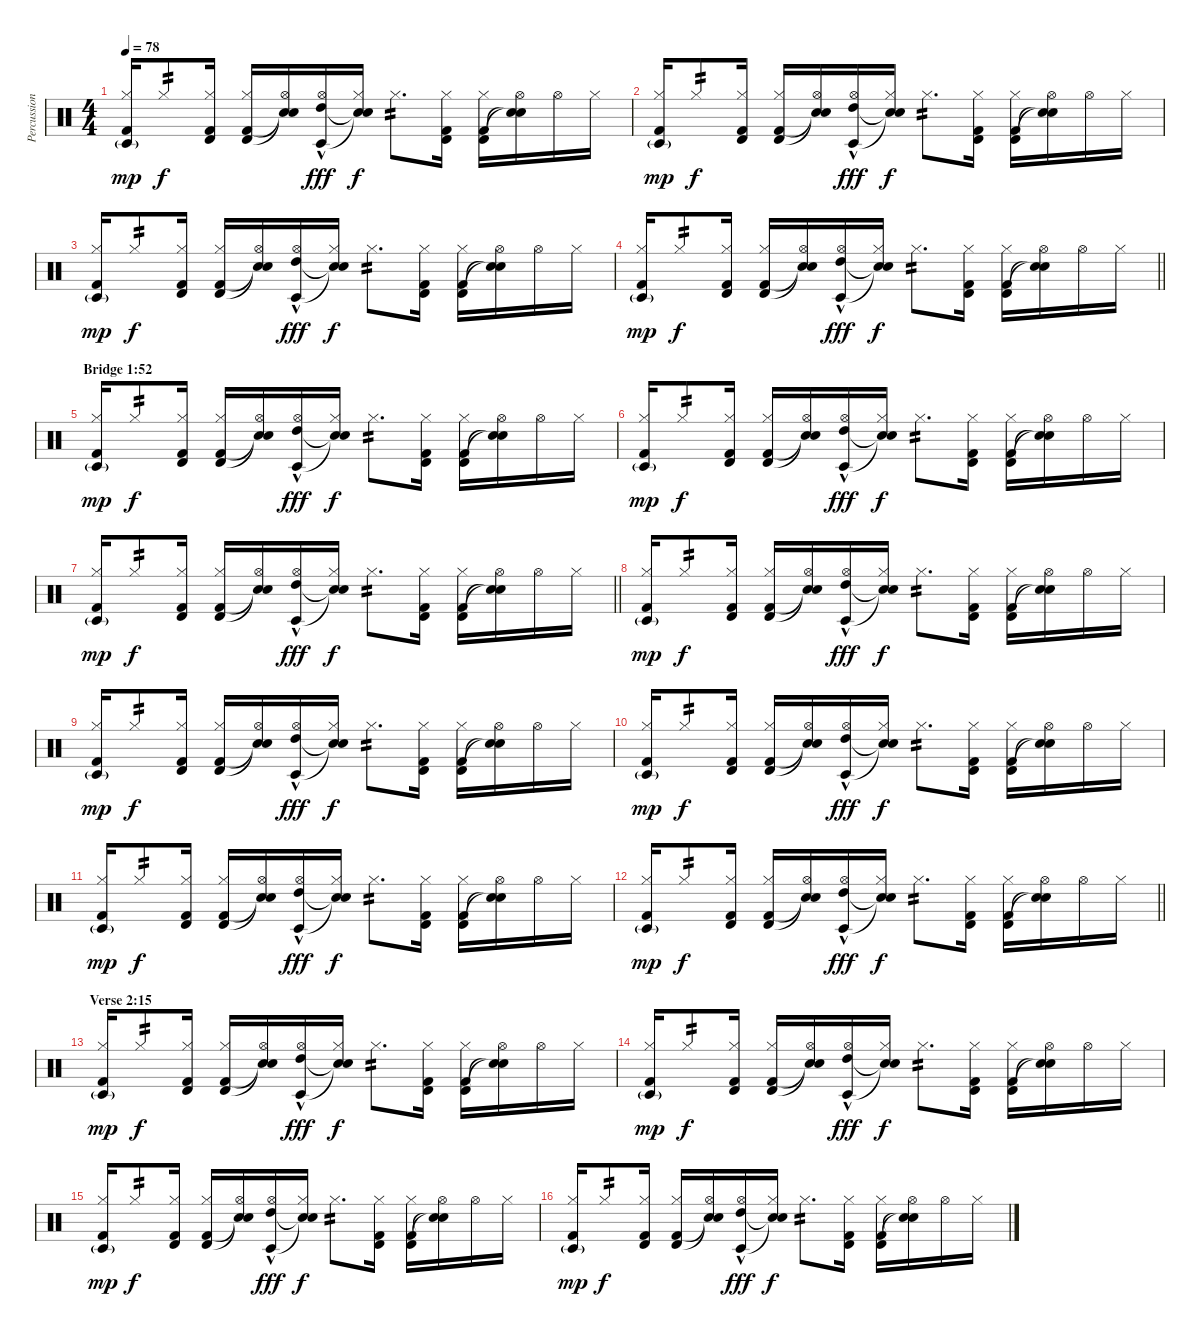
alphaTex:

\track ("Percussion" "Percussion") {instrument percussion}
\staff {score}
\articulation defaults
\ts (4 4)
\tempo 78
\clef neutral
\ks c
("Timbale low (hit)"{g} "Hi-Hat (closed)" "Kick (hit) 2").16{dy mp} "Hi-Hat (closed)".8{tp 2 dy f} ("Timbale high (hit)" "Hi-Hat (closed)" "Kick (hit) 2").16 ("Timbale high (hit)" "Hi-Hat (closed)" "Kick (hit) 2").16 ("Snare (hit)"{t} "Hi-Hat (open)" "Snare (hit)"{t}).16 ("Timbale low (hit)" "Hi-Hat (open)" "High Tom (hit)"{hac}).16{dy fff} ("Snare (hit)"{t} "Hi-Hat (closed)" "Snare (hit)"{t}).16{dy f} "Hi-Hat (closed)".8{d tp 2} ("Timbale high (hit)" "Hi-Hat (closed)" "Kick (hit) 2").16 ("Timbale high (hit)" "Hi-Hat (closed)" "Kick (hit) 2").16 ("Snare (hit)"{t} "Hi-Hat (open)" "Snare (hit)"{t}).16 "Hi-Hat (open)".16 "Hi-Hat (closed)".16 |
("Timbale low (hit)"{g} "Hi-Hat (closed)" "Kick (hit) 2").16{dy mp} "Hi-Hat (closed)".8{tp 2 dy f} ("Timbale high (hit)" "Hi-Hat (closed)" "Kick (hit) 2").16 ("Timbale high (hit)" "Hi-Hat (closed)" "Kick (hit) 2").16 ("Snare (hit)"{t} "Hi-Hat (open)" "Snare (hit)"{t}).16 ("Timbale low (hit)" "Hi-Hat (open)" "High Tom (hit)"{hac}).16{dy fff} ("Snare (hit)"{t} "Hi-Hat (closed)" "Snare (hit)"{t}).16{dy f} "Hi-Hat (closed)".8{d tp 2} ("Timbale high (hit)" "Hi-Hat (closed)" "Kick (hit) 2").16 ("Timbale high (hit)" "Hi-Hat (closed)" "Kick (hit) 2").16 ("Snare (hit)"{t} "Hi-Hat (open)" "Snare (hit)"{t}).16 "Hi-Hat (open)".16 "Hi-Hat (closed)".16 |
("Timbale low (hit)"{g} "Hi-Hat (closed)" "Kick (hit) 2").16{dy mp} "Hi-Hat (closed)".8{tp 2 dy f} ("Timbale high (hit)" "Hi-Hat (closed)" "Kick (hit) 2").16 ("Timbale high (hit)" "Hi-Hat (closed)" "Kick (hit) 2").16 ("Snare (hit)"{t} "Hi-Hat (open)" "Snare (hit)"{t}).16 ("Timbale low (hit)" "Hi-Hat (open)" "High Tom (hit)"{hac}).16{dy fff} ("Snare (hit)"{t} "Hi-Hat (closed)" "Snare (hit)"{t}).16{dy f} "Hi-Hat (closed)".8{d tp 2} ("Timbale high (hit)" "Hi-Hat (closed)" "Kick (hit) 2").16 ("Timbale high (hit)" "Hi-Hat (closed)" "Kick (hit) 2").16 ("Snare (hit)"{t} "Hi-Hat (open)" "Snare (hit)"{t}).16 "Hi-Hat (open)".16 "Hi-Hat (closed)".16 |
\barLineRight lightlight
("Timbale low (hit)"{g} "Hi-Hat (closed)" "Kick (hit) 2").16{dy mp} "Hi-Hat (closed)".8{tp 2 dy f} ("Timbale high (hit)" "Hi-Hat (closed)" "Kick (hit) 2").16 ("Timbale high (hit)" "Hi-Hat (closed)" "Kick (hit) 2").16 ("Snare (hit)"{t} "Hi-Hat (open)" "Snare (hit)"{t}).16 ("Timbale low (hit)" "Hi-Hat (open)" "High Tom (hit)"{hac}).16{dy fff} ("Snare (hit)"{t} "Hi-Hat (closed)" "Snare (hit)"{t}).16{dy f} "Hi-Hat (closed)".8{d tp 2} ("Timbale high (hit)" "Hi-Hat (closed)" "Kick (hit) 2").16 ("Timbale high (hit)" "Hi-Hat (closed)" "Kick (hit) 2").16 ("Snare (hit)"{t} "Hi-Hat (open)" "Snare (hit)"{t}).16 "Hi-Hat (open)".16 "Hi-Hat (closed)".16 |
\section ("" "Bridge 1:52")
("Timbale low (hit)"{g} "Hi-Hat (closed)" "Kick (hit) 2").16{dy mp} "Hi-Hat (closed)".8{tp 2 dy f} ("Timbale high (hit)" "Hi-Hat (closed)" "Kick (hit) 2").16 ("Timbale high (hit)" "Hi-Hat (closed)" "Kick (hit) 2").16 ("Snare (hit)"{t} "Hi-Hat (open)" "Snare (hit)"{t}).16 ("Timbale low (hit)" "Hi-Hat (open)" "High Tom (hit)"{hac}).16{dy fff} ("Snare (hit)"{t} "Hi-Hat (closed)" "Snare (hit)"{t}).16{dy f} "Hi-Hat (closed)".8{d tp 2} ("Timbale high (hit)" "Hi-Hat (closed)" "Kick (hit) 2").16 ("Timbale high (hit)" "Hi-Hat (closed)" "Kick (hit) 2").16 ("Snare (hit)"{t} "Hi-Hat (open)" "Snare (hit)"{t}).16 "Hi-Hat (open)".16 "Hi-Hat (closed)".16 |
("Timbale low (hit)"{g} "Hi-Hat (closed)" "Kick (hit) 2").16{dy mp} "Hi-Hat (closed)".8{tp 2 dy f} ("Timbale high (hit)" "Hi-Hat (closed)" "Kick (hit) 2").16 ("Timbale high (hit)" "Hi-Hat (closed)" "Kick (hit) 2").16 ("Snare (hit)"{t} "Hi-Hat (open)" "Snare (hit)"{t}).16 ("Timbale low (hit)" "Hi-Hat (open)" "High Tom (hit)"{hac}).16{dy fff} ("Snare (hit)"{t} "Hi-Hat (closed)" "Snare (hit)"{t}).16{dy f} "Hi-Hat (closed)".8{d tp 2} ("Timbale high (hit)" "Hi-Hat (closed)" "Kick (hit) 2").16 ("Timbale high (hit)" "Hi-Hat (closed)" "Kick (hit) 2").16 ("Snare (hit)"{t} "Hi-Hat (open)" "Snare (hit)"{t}).16 "Hi-Hat (open)".16 "Hi-Hat (closed)".16 |
\barLineRight lightlight
("Timbale low (hit)"{g} "Hi-Hat (closed)" "Kick (hit) 2").16{dy mp} "Hi-Hat (closed)".8{tp 2 dy f} ("Timbale high (hit)" "Hi-Hat (closed)" "Kick (hit) 2").16 ("Timbale high (hit)" "Hi-Hat (closed)" "Kick (hit) 2").16 ("Snare (hit)"{t} "Hi-Hat (open)" "Snare (hit)"{t}).16 ("Timbale low (hit)" "Hi-Hat (open)" "High Tom (hit)"{hac}).16{dy fff} ("Snare (hit)"{t} "Hi-Hat (closed)" "Snare (hit)"{t}).16{dy f} "Hi-Hat (closed)".8{d tp 2} ("Timbale high (hit)" "Hi-Hat (closed)" "Kick (hit) 2").16 ("Timbale high (hit)" "Hi-Hat (closed)" "Kick (hit) 2").16 ("Snare (hit)"{t} "Hi-Hat (open)" "Snare (hit)"{t}).16 "Hi-Hat (open)".16 "Hi-Hat (closed)".16 |
("Timbale low (hit)"{g} "Hi-Hat (closed)" "Kick (hit) 2").16{dy mp} "Hi-Hat (closed)".8{tp 2 dy f} ("Timbale high (hit)" "Hi-Hat (closed)" "Kick (hit) 2").16 ("Timbale high (hit)" "Hi-Hat (closed)" "Kick (hit) 2").16 ("Snare (hit)"{t} "Hi-Hat (open)" "Snare (hit)"{t}).16 ("Timbale low (hit)" "Hi-Hat (open)" "High Tom (hit)"{hac}).16{dy fff} ("Snare (hit)"{t} "Hi-Hat (closed)" "Snare (hit)"{t}).16{dy f} "Hi-Hat (closed)".8{d tp 2} ("Timbale high (hit)" "Hi-Hat (closed)" "Kick (hit) 2").16 ("Timbale high (hit)" "Hi-Hat (closed)" "Kick (hit) 2").16 ("Snare (hit)"{t} "Hi-Hat (open)" "Snare (hit)"{t}).16 "Hi-Hat (open)".16 "Hi-Hat (closed)".16 |
("Timbale low (hit)"{g} "Hi-Hat (closed)" "Kick (hit) 2").16{dy mp} "Hi-Hat (closed)".8{tp 2 dy f} ("Timbale high (hit)" "Hi-Hat (closed)" "Kick (hit) 2").16 ("Timbale high (hit)" "Hi-Hat (closed)" "Kick (hit) 2").16 ("Snare (hit)"{t} "Hi-Hat (open)" "Snare (hit)"{t}).16 ("Timbale low (hit)" "Hi-Hat (open)" "High Tom (hit)"{hac}).16{dy fff} ("Snare (hit)"{t} "Hi-Hat (closed)" "Snare (hit)"{t}).16{dy f} "Hi-Hat (closed)".8{d tp 2} ("Timbale high (hit)" "Hi-Hat (closed)" "Kick (hit) 2").16 ("Timbale high (hit)" "Hi-Hat (closed)" "Kick (hit) 2").16 ("Snare (hit)"{t} "Hi-Hat (open)" "Snare (hit)"{t}).16 "Hi-Hat (open)".16 "Hi-Hat (closed)".16 |
("Timbale low (hit)"{g} "Hi-Hat (closed)" "Kick (hit) 2").16{dy mp} "Hi-Hat (closed)".8{tp 2 dy f} ("Timbale high (hit)" "Hi-Hat (closed)" "Kick (hit) 2").16 ("Timbale high (hit)" "Hi-Hat (closed)" "Kick (hit) 2").16 ("Snare (hit)"{t} "Hi-Hat (open)" "Snare (hit)"{t}).16 ("Timbale low (hit)" "Hi-Hat (open)" "High Tom (hit)"{hac}).16{dy fff} ("Snare (hit)"{t} "Hi-Hat (closed)" "Snare (hit)"{t}).16{dy f} "Hi-Hat (closed)".8{d tp 2} ("Timbale high (hit)" "Hi-Hat (closed)" "Kick (hit) 2").16 ("Timbale high (hit)" "Hi-Hat (closed)" "Kick (hit) 2").16 ("Snare (hit)"{t} "Hi-Hat (open)" "Snare (hit)"{t}).16 "Hi-Hat (open)".16 "Hi-Hat (closed)".16 |
("Timbale low (hit)"{g} "Hi-Hat (closed)" "Kick (hit) 2").16{dy mp} "Hi-Hat (closed)".8{tp 2 dy f} ("Timbale high (hit)" "Hi-Hat (closed)" "Kick (hit) 2").16 ("Timbale high (hit)" "Hi-Hat (closed)" "Kick (hit) 2").16 ("Snare (hit)"{t} "Hi-Hat (open)" "Snare (hit)"{t}).16 ("Timbale low (hit)" "Hi-Hat (open)" "High Tom (hit)"{hac}).16{dy fff} ("Snare (hit)"{t} "Hi-Hat (closed)" "Snare (hit)"{t}).16{dy f} "Hi-Hat (closed)".8{d tp 2} ("Timbale high (hit)" "Hi-Hat (closed)" "Kick (hit) 2").16 ("Timbale high (hit)" "Hi-Hat (closed)" "Kick (hit) 2").16 ("Snare (hit)"{t} "Hi-Hat (open)" "Snare (hit)"{t}).16 "Hi-Hat (open)".16 "Hi-Hat (closed)".16 |
\barLineRight lightlight
("Timbale low (hit)"{g} "Hi-Hat (closed)" "Kick (hit) 2").16{dy mp} "Hi-Hat (closed)".8{tp 2 dy f} ("Timbale high (hit)" "Hi-Hat (closed)" "Kick (hit) 2").16 ("Timbale high (hit)" "Hi-Hat (closed)" "Kick (hit) 2").16 ("Snare (hit)"{t} "Hi-Hat (open)" "Snare (hit)"{t}).16 ("Timbale low (hit)" "Hi-Hat (open)" "High Tom (hit)"{hac}).16{dy fff} ("Snare (hit)"{t} "Hi-Hat (closed)" "Snare (hit)"{t}).16{dy f} "Hi-Hat (closed)".8{d tp 2} ("Timbale high (hit)" "Hi-Hat (closed)" "Kick (hit) 2").16 ("Timbale high (hit)" "Hi-Hat (closed)" "Kick (hit) 2").16 ("Snare (hit)"{t} "Hi-Hat (open)" "Snare (hit)"{t}).16 "Hi-Hat (open)".16 "Hi-Hat (closed)".16 |
\section ("" "Verse 2:15")
("Timbale low (hit)"{g} "Hi-Hat (closed)" "Kick (hit) 2").16{dy mp} "Hi-Hat (closed)".8{tp 2 dy f} ("Timbale high (hit)" "Hi-Hat (closed)" "Kick (hit) 2").16 ("Timbale high (hit)" "Hi-Hat (closed)" "Kick (hit) 2").16 ("Snare (hit)"{t} "Hi-Hat (open)" "Snare (hit)"{t}).16 ("Timbale low (hit)" "Hi-Hat (open)" "High Tom (hit)"{hac}).16{dy fff} ("Snare (hit)"{t} "Hi-Hat (closed)" "Snare (hit)"{t}).16{dy f} "Hi-Hat (closed)".8{d tp 2} ("Timbale high (hit)" "Hi-Hat (closed)" "Kick (hit) 2").16 ("Timbale high (hit)" "Hi-Hat (closed)" "Kick (hit) 2").16 ("Snare (hit)"{t} "Hi-Hat (open)" "Snare (hit)"{t}).16 "Hi-Hat (open)".16 "Hi-Hat (closed)".16 |
("Timbale low (hit)"{g} "Hi-Hat (closed)" "Kick (hit) 2").16{dy mp} "Hi-Hat (closed)".8{tp 2 dy f} ("Timbale high (hit)" "Hi-Hat (closed)" "Kick (hit) 2").16 ("Timbale high (hit)" "Hi-Hat (closed)" "Kick (hit) 2").16 ("Snare (hit)"{t} "Hi-Hat (open)" "Snare (hit)"{t}).16 ("Timbale low (hit)" "Hi-Hat (open)" "High Tom (hit)"{hac}).16{dy fff} ("Snare (hit)"{t} "Hi-Hat (closed)" "Snare (hit)"{t}).16{dy f} "Hi-Hat (closed)".8{d tp 2} ("Timbale high (hit)" "Hi-Hat (closed)" "Kick (hit) 2").16 ("Timbale high (hit)" "Hi-Hat (closed)" "Kick (hit) 2").16 ("Snare (hit)"{t} "Hi-Hat (open)" "Snare (hit)"{t}).16 "Hi-Hat (open)".16 "Hi-Hat (closed)".16 |
("Timbale low (hit)"{g} "Hi-Hat (closed)" "Kick (hit) 2").16{dy mp} "Hi-Hat (closed)".8{tp 2 dy f} ("Timbale high (hit)" "Hi-Hat (closed)" "Kick (hit) 2").16 ("Timbale high (hit)" "Hi-Hat (closed)" "Kick (hit) 2").16 ("Snare (hit)"{t} "Hi-Hat (open)" "Snare (hit)"{t}).16 ("Timbale low (hit)" "Hi-Hat (open)" "High Tom (hit)"{hac}).16{dy fff} ("Snare (hit)"{t} "Hi-Hat (closed)" "Snare (hit)"{t}).16{dy f} "Hi-Hat (closed)".8{d tp 2} ("Timbale high (hit)" "Hi-Hat (closed)" "Kick (hit) 2").16 ("Timbale high (hit)" "Hi-Hat (closed)" "Kick (hit) 2").16 ("Snare (hit)"{t} "Hi-Hat (open)" "Snare (hit)"{t}).16 "Hi-Hat (open)".16 "Hi-Hat (closed)".16 |
("Timbale low (hit)"{g} "Hi-Hat (closed)" "Kick (hit) 2").16{dy mp} "Hi-Hat (closed)".8{tp 2 dy f} ("Timbale high (hit)" "Hi-Hat (closed)" "Kick (hit) 2").16 ("Timbale high (hit)" "Hi-Hat (closed)" "Kick (hit) 2").16 ("Snare (hit)"{t} "Hi-Hat (open)" "Snare (hit)"{t}).16 ("Timbale low (hit)" "Hi-Hat (open)" "High Tom (hit)"{hac}).16{dy fff} ("Snare (hit)"{t} "Hi-Hat (closed)" "Snare (hit)"{t}).16{dy f} "Hi-Hat (closed)".8{d tp 2} ("Timbale high (hit)" "Hi-Hat (closed)" "Kick (hit) 2").16 ("Timbale high (hit)" "Hi-Hat (closed)" "Kick (hit) 2").16 ("Snare (hit)"{t} "Hi-Hat (open)" "Snare (hit)"{t}).16 "Hi-Hat (open)".16 "Hi-Hat (closed)".16
